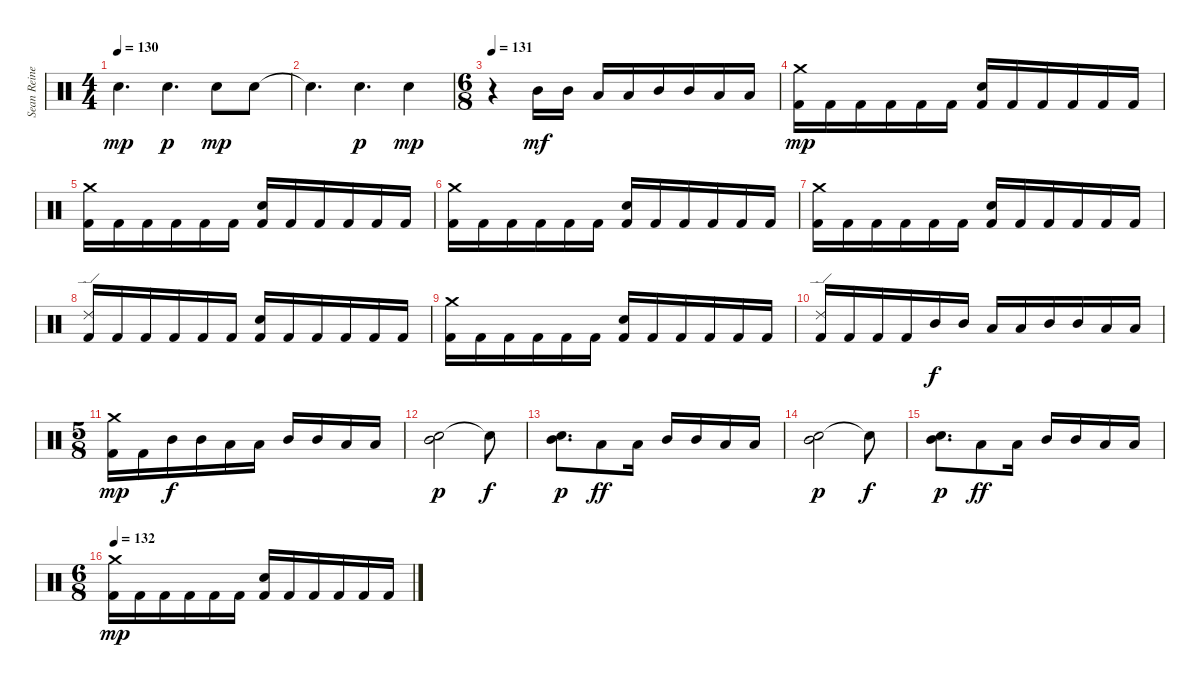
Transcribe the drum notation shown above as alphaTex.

\track ("Sean Reinert" "Sean Reine") {instrument percussion}
\staff {score}
\articulation defaults
\ts (4 4)
\tempo 130
\clef neutral
\ks c "Snare (hit) 2".4{d dy mp} "Snare (hit) 2".4{d dy p} "Snare (hit) 2".8{dy mp} "Snare (hit) 2".8
|
"Snare (hit)"{t}.4{d} "Snare (hit) 2".4{d dy p} "Snare (hit) 2".4{dy mp} |
\ts (6 8)
\tempo 131
r.4 "Mid Tom (hit)".16{dy mf} "Mid Tom (hit)".16 "Low Tom (hit)".16 "Low Tom (hit)".16 "Mid Tom (hit)".16 "Mid Tom (hit)".16 "Low Tom (hit)".16 "Low Tom (hit)".16 |
("Crash medium (hit)" "Kick (hit) 2").16{dy mp} "Kick (hit) 2".16 "Kick (hit) 2".16 "Kick (hit) 2".16 "Kick (hit) 2".16 "Kick (hit) 2".16 ("Snare (hit) 2" "Kick (hit) 2").16 "Kick (hit) 2".16 "Kick (hit) 2".16 "Kick (hit) 2".16 "Kick (hit) 2".16 "Kick (hit) 2".16 |
("Crash medium (hit)" "Kick (hit) 2").16 "Kick (hit) 2".16 "Kick (hit) 2".16 "Kick (hit) 2".16 "Kick (hit) 2".16 "Kick (hit) 2".16 ("Snare (hit) 2" "Kick (hit) 2").16 "Kick (hit) 2".16 "Kick (hit) 2".16 "Kick (hit) 2".16 "Kick (hit) 2".16 "Kick (hit) 2".16 |
("Crash medium (hit)" "Kick (hit) 2").16 "Kick (hit) 2".16 "Kick (hit) 2".16 "Kick (hit) 2".16 "Kick (hit) 2".16 "Kick (hit) 2".16 ("Snare (hit) 2" "Kick (hit) 2").16 "Kick (hit) 2".16 "Kick (hit) 2".16 "Kick (hit) 2".16 "Kick (hit) 2".16 "Kick (hit) 2".16 |
("Crash medium (hit)" "Kick (hit) 2").16 "Kick (hit) 2".16 "Kick (hit) 2".16 "Kick (hit) 2".16 "Kick (hit) 2".16 "Kick (hit) 2".16 ("Snare (hit) 2" "Kick (hit) 2").16 "Kick (hit) 2".16 "Kick (hit) 2".16 "Kick (hit) 2".16 "Kick (hit) 2".16 "Kick (hit) 2".16 |
("Ride (edge) 2" "Kick (hit) 2").16 "Kick (hit) 2".16 "Kick (hit) 2".16 "Kick (hit) 2".16 "Kick (hit) 2".16 "Kick (hit) 2".16 ("Snare (hit) 2" "Kick (hit) 2").16 "Kick (hit) 2".16 "Kick (hit) 2".16 "Kick (hit) 2".16 "Kick (hit) 2".16 "Kick (hit) 2".16 |
("Crash medium (hit)" "Kick (hit) 2").16 "Kick (hit) 2".16 "Kick (hit) 2".16 "Kick (hit) 2".16 "Kick (hit) 2".16 "Kick (hit) 2".16 ("Snare (hit) 2" "Kick (hit) 2").16 "Kick (hit) 2".16 "Kick (hit) 2".16 "Kick (hit) 2".16 "Kick (hit) 2".16 "Kick (hit) 2".16 |
("Ride (edge) 2" "Kick (hit) 2").16 "Kick (hit) 2".16 "Kick (hit) 2".16 "Kick (hit) 2".16 "Mid Tom (hit)".16{dy f} "Mid Tom (hit)".16 "Low Tom (hit)".16 "Low Tom (hit)".16 "Mid Tom (hit)".16 "Mid Tom (hit)".16 "Low Tom (hit)".16 "Low Tom (hit)".16 |
\ts (5 8)
("Crash medium (hit)" "Kick (hit) 2").16{dy mp} "Kick (hit) 2".16 "Mid Tom (hit)".16{dy f} "Mid Tom (hit)".16 "Low Tom (hit)".16 "Low Tom (hit)".16 "Mid Tom (hit)".16 "Mid Tom (hit)".16 "Low Tom (hit)".16 "Low Tom (hit)".16 |
("Snare (hit) 2" "Mid Tom (hit)").2{dy p} "Snare (hit)"{t}.8{dy f} |
("Snare (hit) 2" "Mid Tom (hit)").8{d dy p} "Low Tom (hit)".8{dy ff} "Low Tom (hit)".16 "Mid Tom (hit)".16 "Mid Tom (hit)".16 "Low Tom (hit)".16 "Low Tom (hit)".16 |
("Snare (hit) 2" "Mid Tom (hit)").2{dy p} "Snare (hit)"{t}.8{dy f} |
("Snare (hit) 2" "Mid Tom (hit)").8{d dy p} "Low Tom (hit)".8{dy ff} "Low Tom (hit)".16 "Mid Tom (hit)".16 "Mid Tom (hit)".16 "Low Tom (hit)".16 "Low Tom (hit)".16 |
\ts (6 8)
\tempo 132
("Crash medium (hit)" "Kick (hit) 2").16{dy mp} "Kick (hit) 2".16 "Kick (hit) 2".16 "Kick (hit) 2".16 "Kick (hit) 2".16 "Kick (hit) 2".16 ("Snare (hit) 2" "Kick (hit) 2").16 "Kick (hit) 2".16 "Kick (hit) 2".16 "Kick (hit) 2".16 "Kick (hit) 2".16 "Kick (hit) 2".16
